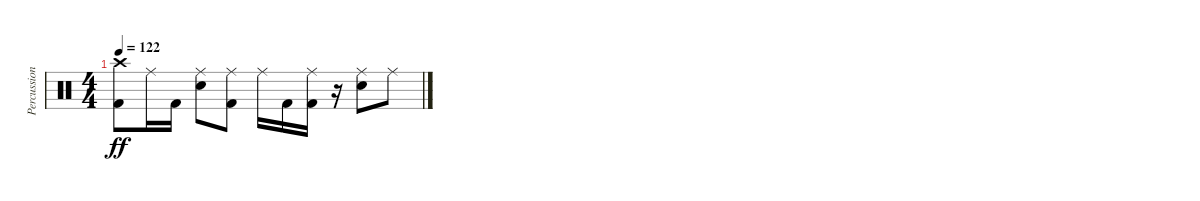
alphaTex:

\track ("Percussion" "Percussion") {instrument percussion}
\staff {score}
\articulation defaults
\ts (4 4)
\tempo 122
\clef neutral
\ks c
("Crash high (hit)" "Kick (hit) 2").8{dy ff} "Ride (middle)".16 "Kick (hit) 2".16 ("Ride (middle)" "Electric Snare (hit)").8 ("Ride (middle)" "Kick (hit) 2").8 "Ride (middle)".16 "Kick (hit) 2".16 ("Ride (middle)" "Kick (hit) 2").16 r.16 ("Ride (middle)" "Electric Snare (hit)").8 "Ride (middle)".8
